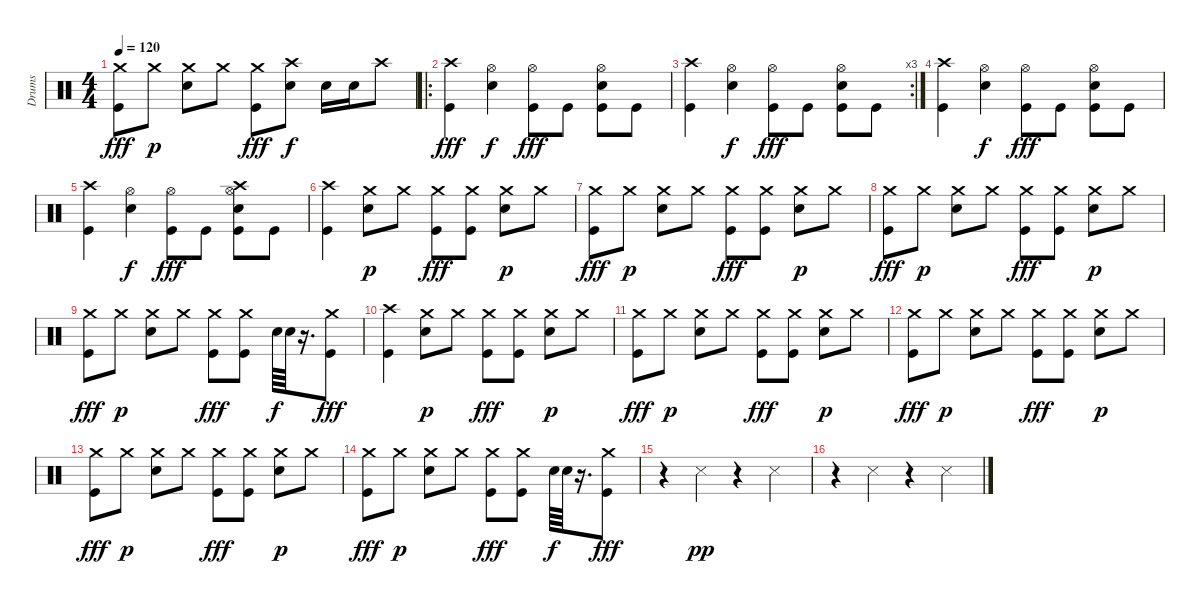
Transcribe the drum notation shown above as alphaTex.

\track ("Drums" "Drums") {instrument percussion}
\staff {score}
\articulation defaults
\ts (4 4)
\tempo 120
\clef neutral
\ks c
("Crash medium (hit)" "Kick (hit)").8{dy fff} "Crash medium (hit)".8{dy p} ("Crash medium (hit)" "Snare (hit) 2").8 "Crash medium (hit)".8 ("Crash medium (hit)" "Kick (hit)").8{dy fff} ("Crash high (hit)" "Snare (hit) 2").8{dy f} "Snare (hit) 2".16 "Snare (hit) 2".16 "Crash high (hit)".8 |
\ro
("Crash high (hit)" "Kick (hit)").4{dy fff} ("Hi-Hat (open)" "Snare (hit) 2").4{dy f} ("Hi-Hat (open)" "Kick (hit)").8{dy fff} "Kick (hit)".8 ("Hi-Hat (open)" "Snare (hit) 2" "Kick (hit)").8 "Kick (hit)".8 |
\rc 3
("Crash high (hit)" "Kick (hit)").4 ("Hi-Hat (open)" "Snare (hit) 2").4{dy f} ("Hi-Hat (open)" "Kick (hit)").8{dy fff} "Kick (hit)".8 ("Hi-Hat (open)" "Snare (hit) 2" "Kick (hit)").8 "Kick (hit)".8 |
("Crash high (hit)" "Kick (hit)").4 ("Hi-Hat (open)" "Snare (hit) 2").4{dy f} ("Hi-Hat (open)" "Kick (hit)").8{dy fff} "Kick (hit)".8 ("Hi-Hat (open)" "Snare (hit) 2" "Kick (hit)").8 "Kick (hit)".8 |
("Crash high (hit)" "Kick (hit)").4 ("Hi-Hat (open)" "Snare (hit) 2").4{dy f} ("Hi-Hat (open)" "Kick (hit)").8{dy fff} "Kick (hit)".8 ("Crash high (hit)" "Hi-Hat (open)" "Snare (hit) 2" "Kick (hit)").8 "Kick (hit)".8 |
("Crash high (hit)" "Kick (hit)").4 ("Crash medium (hit)" "Snare (hit) 2").8{dy p} "Crash medium (hit)".8 ("Crash medium (hit)" "Kick (hit)").8{dy fff} ("Crash medium (hit)" "Kick (hit)").8 ("Crash medium (hit)" "Snare (hit) 2").8{dy p} "Crash medium (hit)".8 |
("Crash medium (hit)" "Kick (hit)").8{dy fff} "Crash medium (hit)".8{dy p} ("Crash medium (hit)" "Snare (hit) 2").8 "Crash medium (hit)".8 ("Crash medium (hit)" "Kick (hit)").8{dy fff} ("Crash medium (hit)" "Kick (hit)").8 ("Crash medium (hit)" "Snare (hit) 2").8{dy p} "Crash medium (hit)".8 |
("Crash medium (hit)" "Kick (hit)").8{dy fff} "Crash medium (hit)".8{dy p} ("Crash medium (hit)" "Snare (hit) 2").8 "Crash medium (hit)".8 ("Crash medium (hit)" "Kick (hit)").8{dy fff} ("Crash medium (hit)" "Kick (hit)").8 ("Crash medium (hit)" "Snare (hit) 2").8{dy p} "Crash medium (hit)".8 |
("Crash medium (hit)" "Kick (hit)").8{dy fff} "Crash medium (hit)".8{dy p} ("Crash medium (hit)" "Snare (hit) 2").8 "Crash medium (hit)".8 ("Crash medium (hit)" "Kick (hit)").8{dy fff} ("Crash medium (hit)" "Kick (hit)").8 "Snare (hit) 2".64{dy f} "Snare (hit) 2".64 r.16{d} ("Crash medium (hit)" "Kick (hit)").8{dy fff} |
("Crash high (hit)" "Kick (hit)").4 ("Crash medium (hit)" "Snare (hit) 2").8{dy p} "Crash medium (hit)".8 ("Crash medium (hit)" "Kick (hit)").8{dy fff} ("Crash medium (hit)" "Kick (hit)").8 ("Crash medium (hit)" "Snare (hit) 2").8{dy p} "Crash medium (hit)".8 |
("Crash medium (hit)" "Kick (hit)").8{dy fff} "Crash medium (hit)".8{dy p} ("Crash medium (hit)" "Snare (hit) 2").8 "Crash medium (hit)".8 ("Crash medium (hit)" "Kick (hit)").8{dy fff} ("Crash medium (hit)" "Kick (hit)").8 ("Crash medium (hit)" "Snare (hit) 2").8{dy p} "Crash medium (hit)".8 |
("Crash medium (hit)" "Kick (hit)").8{dy fff} "Crash medium (hit)".8{dy p} ("Crash medium (hit)" "Snare (hit) 2").8 "Crash medium (hit)".8 ("Crash medium (hit)" "Kick (hit)").8{dy fff} ("Crash medium (hit)" "Kick (hit)").8 ("Crash medium (hit)" "Snare (hit) 2").8{dy p} "Crash medium (hit)".8 |
("Crash medium (hit)" "Kick (hit)").8{dy fff} "Crash medium (hit)".8{dy p} ("Crash medium (hit)" "Snare (hit) 2").8 "Crash medium (hit)".8 ("Crash medium (hit)" "Kick (hit)").8{dy fff} ("Crash medium (hit)" "Kick (hit)").8 ("Crash medium (hit)" "Snare (hit) 2").8{dy p} "Crash medium (hit)".8 |
("Crash medium (hit)" "Kick (hit)").8{dy fff} "Crash medium (hit)".8{dy p} ("Crash medium (hit)" "Snare (hit) 2").8 "Crash medium (hit)".8 ("Crash medium (hit)" "Kick (hit)").8{dy fff} ("Crash medium (hit)" "Kick (hit)").8 "Snare (hit) 2".64{dy f} "Snare (hit) 2".64 r.16{d} ("Crash medium (hit)" "Kick (hit)").8{dy fff} |
r.4 "Snare (side stick) 3".4{dy pp} r.4 "Snare (side stick) 3".4 |
r.4 "Snare (side stick) 3".4 r.4 "Snare (side stick) 3".4
